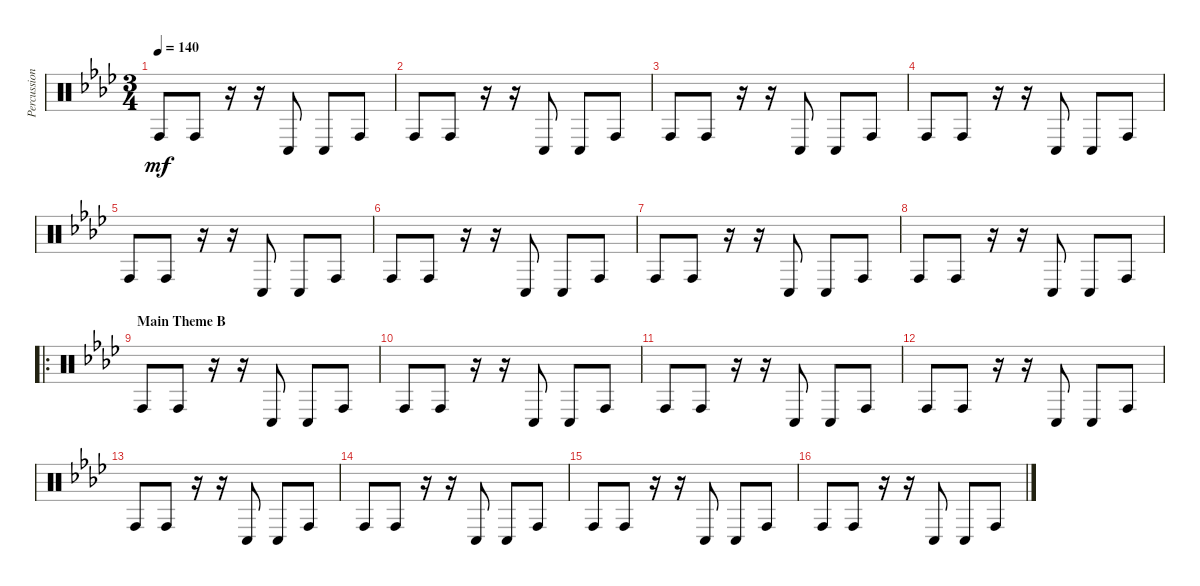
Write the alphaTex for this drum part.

\track ("Percussion" "Percussion") {instrument percussion}
\staff {score}
\articulation defaults
\ts (3 4)
\tempo 140
\clef neutral
\ks fminor "Conga high (hit)".8{dy mf} "Conga high (hit)".8
r.16 r.16 "Conga low (hit)".8 "Conga low (hit)".8 "Conga high (hit)".8 |
"Conga high (hit)".8 "Conga high (hit)".8 r.16 r.16 "Conga low (hit)".8 "Conga low (hit)".8 "Conga high (hit)".8 |
"Conga high (hit)".8 "Conga high (hit)".8 r.16 r.16 "Conga low (hit)".8 "Conga low (hit)".8 "Conga high (hit)".8 |
"Conga high (hit)".8 "Conga high (hit)".8 r.16 r.16 "Conga low (hit)".8 "Conga low (hit)".8 "Conga high (hit)".8 |
"Conga high (hit)".8 "Conga high (hit)".8 r.16 r.16 "Conga low (hit)".8 "Conga low (hit)".8 "Conga high (hit)".8 |
"Conga high (hit)".8 "Conga high (hit)".8 r.16 r.16 "Conga low (hit)".8 "Conga low (hit)".8 "Conga high (hit)".8 |
"Conga high (hit)".8 "Conga high (hit)".8 r.16 r.16 "Conga low (hit)".8 "Conga low (hit)".8 "Conga high (hit)".8 |
"Conga high (hit)".8 "Conga high (hit)".8 r.16 r.16 "Conga low (hit)".8 "Conga low (hit)".8 "Conga high (hit)".8 |
\ro
\section ("" "Main Theme B")
"Conga high (hit)".8 "Conga high (hit)".8 r.16 r.16 "Conga low (hit)".8 "Conga low (hit)".8 "Conga high (hit)".8 |
"Conga high (hit)".8 "Conga high (hit)".8 r.16 r.16 "Conga low (hit)".8 "Conga low (hit)".8 "Conga high (hit)".8 |
"Conga high (hit)".8 "Conga high (hit)".8 r.16 r.16 "Conga low (hit)".8 "Conga low (hit)".8 "Conga high (hit)".8 |
"Conga high (hit)".8 "Conga high (hit)".8 r.16 r.16 "Conga low (hit)".8 "Conga low (hit)".8 "Conga high (hit)".8 |
"Conga high (hit)".8 "Conga high (hit)".8 r.16 r.16 "Conga low (hit)".8 "Conga low (hit)".8 "Conga high (hit)".8 |
"Conga high (hit)".8 "Conga high (hit)".8 r.16 r.16 "Conga low (hit)".8 "Conga low (hit)".8 "Conga high (hit)".8 |
"Conga high (hit)".8 "Conga high (hit)".8 r.16 r.16 "Conga low (hit)".8 "Conga low (hit)".8 "Conga high (hit)".8 |
"Conga high (hit)".8 "Conga high (hit)".8 r.16 r.16 "Conga low (hit)".8 "Conga low (hit)".8 "Conga high (hit)".8
